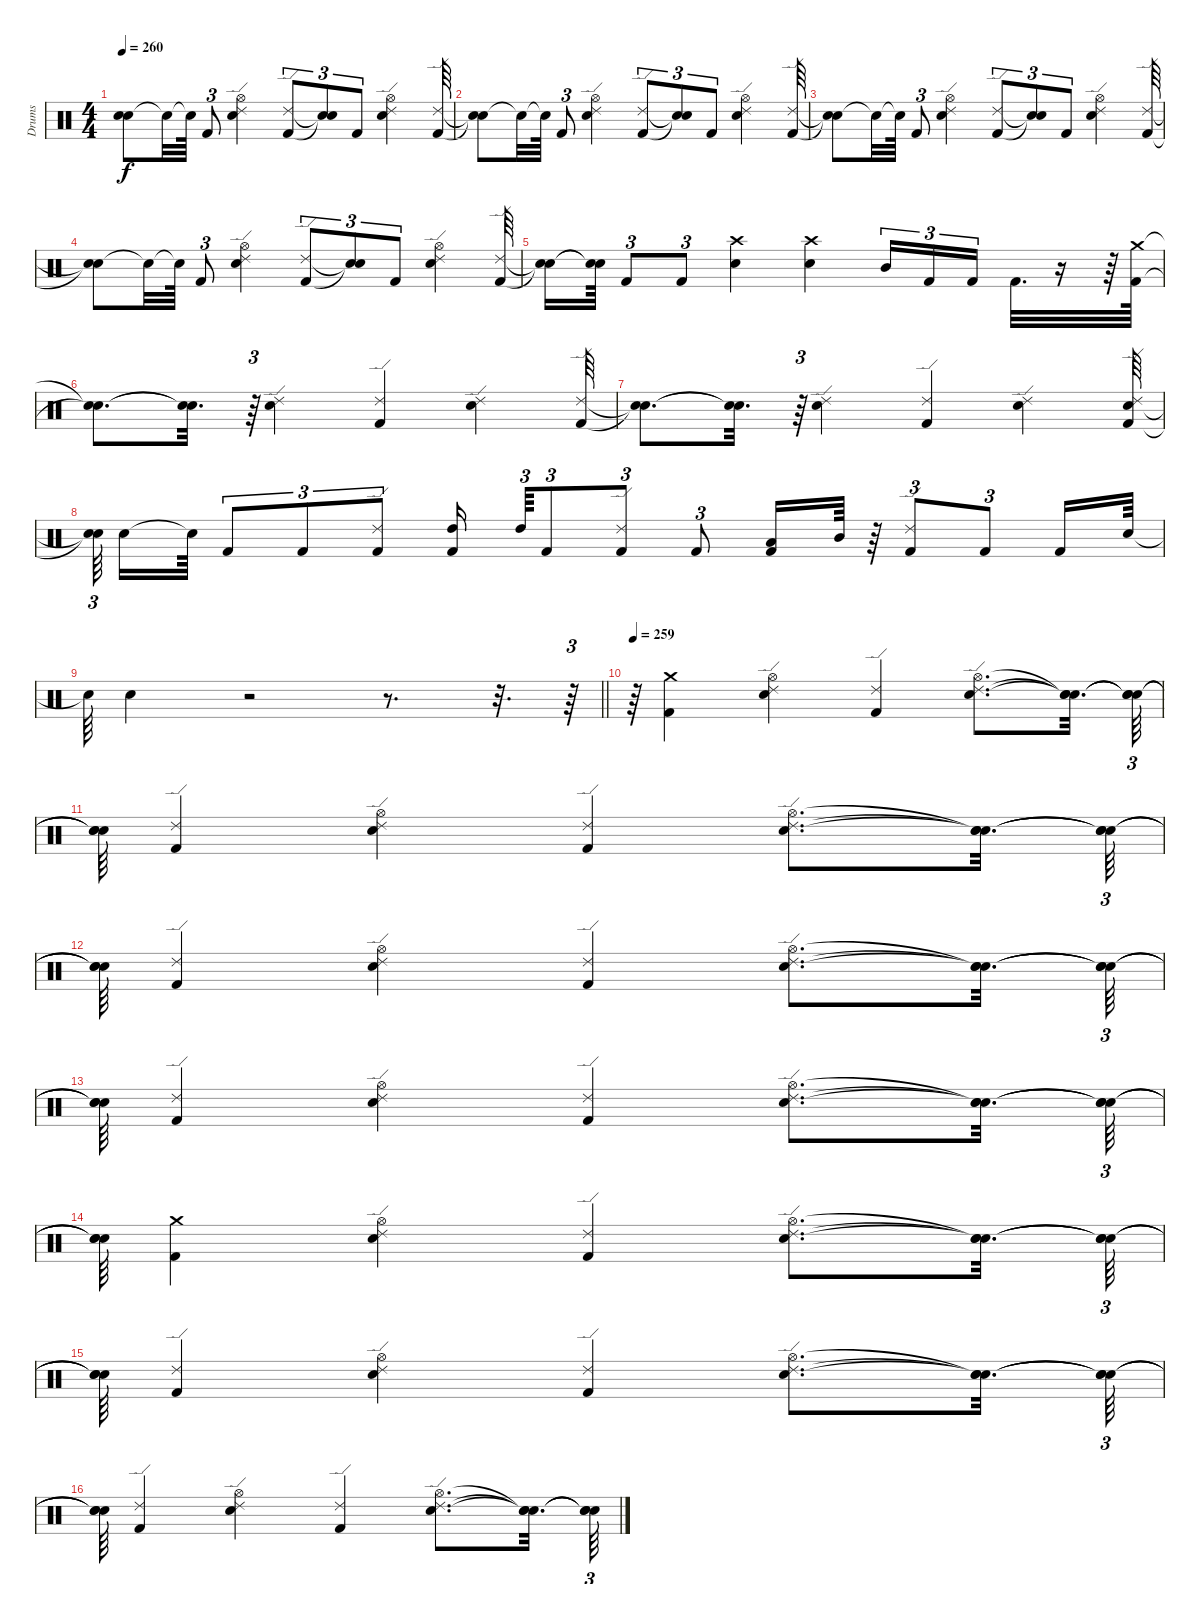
\track ("Drums" "Drums") {instrument percussion}
\staff {score}
\articulation defaults
\ts (4 4)
\tempo 260
\clef neutral
\ks c
("Snare (hit)"{t} "Snare (hit)"{t}).8{dy f} "Snare (hit)"{t}.32 "Snare (hit)"{t}.64 "Kick (hit) 2".8{tu (3 2)} ("Electric Snare (hit)" "Ride (edge) 2" "Hi-Hat (open)").4 ("Kick (hit) 2" "Ride (edge) 2").8{tu (3 2)} ("Snare (hit)"{t} "Snare (hit)"{t}).8{tu (3 2)} "Kick (hit) 2".8{tu (3 2)} ("Electric Snare (hit)" "Ride (edge) 2" "Hi-Hat (open)").4 ("Kick (hit) 2" "Ride (edge) 2").64 |
("Snare (hit)"{t} "Snare (hit)"{t}).8 "Snare (hit)"{t}.32 "Snare (hit)"{t}.64 "Kick (hit) 2".8{tu (3 2)} ("Electric Snare (hit)" "Ride (edge) 2" "Hi-Hat (open)").4 ("Kick (hit) 2" "Ride (edge) 2").8{tu (3 2)} ("Snare (hit)"{t} "Snare (hit)"{t}).8{tu (3 2)} "Kick (hit) 2".8{tu (3 2)} ("Electric Snare (hit)" "Ride (edge) 2" "Hi-Hat (open)").4 ("Kick (hit) 2" "Ride (edge) 2").64 |
("Snare (hit)"{t} "Snare (hit)"{t}).8 "Snare (hit)"{t}.32 "Snare (hit)"{t}.64 "Kick (hit) 2".8{tu (3 2)} ("Electric Snare (hit)" "Ride (edge) 2" "Hi-Hat (open)").4 ("Kick (hit) 2" "Ride (edge) 2").8{tu (3 2)} ("Snare (hit)"{t} "Snare (hit)"{t}).8{tu (3 2)} "Kick (hit) 2".8{tu (3 2)} ("Electric Snare (hit)" "Ride (edge) 2" "Hi-Hat (open)").4 ("Kick (hit) 2" "Ride (edge) 2").64 |
("Snare (hit)"{t} "Snare (hit)"{t}).8 "Snare (hit)"{t}.32 "Snare (hit)"{t}.64 "Kick (hit) 2".8{tu (3 2)} ("Electric Snare (hit)" "Ride (edge) 2" "Hi-Hat (open)").4 ("Kick (hit) 2" "Ride (edge) 2").8{tu (3 2)} ("Snare (hit)"{t} "Snare (hit)"{t}).8{tu (3 2)} "Kick (hit) 2".8{tu (3 2)} ("Electric Snare (hit)" "Ride (edge) 2" "Hi-Hat (open)").4 ("Kick (hit) 2" "Ride (edge) 2").64 |
("Snare (hit)"{t} "Snare (hit)"{t}).16 ("Snare (hit)"{t} "Snare (hit)"{t}).64 "Kick (hit) 2".8{tu (3 2)} "Kick (hit) 2".8{tu (3 2)} ("Electric Snare (hit)" "Crash high (hit)").4 ("Electric Snare (hit)" "Crash high (hit)").4 "Mid Tom (hit)".16{tu (3 2)} "Kick (hit) 2".16{tu (3 2)} "Kick (hit) 2".16{tu (3 2) beam splitsecondary} "Kick (hit) 2".32{d} r.16 r.64 ("Kick (hit) 2" "Crash medium (hit)").64 |
("Snare (hit)"{t} "Snare (hit)"{t}).8{d} ("Snare (hit)"{t} "Snare (hit)"{t}).32{d} r.64{tu (3 2)} ("Electric Snare (hit)" "Ride (edge) 2").4 ("Kick (hit) 2" "Ride (edge) 2").4 ("Electric Snare (hit)" "Ride (edge) 2").4 ("Kick (hit) 2" "Ride (edge) 2").64 |
("Snare (hit)"{t} "Snare (hit)"{t}).8{d} ("Snare (hit)"{t} "Snare (hit)"{t}).32{d} r.64{tu (3 2)} ("Electric Snare (hit)" "Ride (edge) 2").4 ("Kick (hit) 2" "Ride (edge) 2").4 ("Electric Snare (hit)" "Ride (edge) 2").4 ("Kick (hit) 2" "Electric Snare (hit)" "Ride (edge) 2").64 |
("Snare (hit)"{t} "Snare (hit)"{t}).64{tu (3 2) beam splitsecondary} "Electric Snare (hit)".16 "Snare (hit)"{t}.64 "Kick (hit) 2".8{tu (3 2)} "Kick (hit) 2".8{tu (3 2)} ("Kick (hit) 2" "Ride (edge) 2").8{tu (3 2)} ("Kick (hit) 2" "High Tom (hit)").16{beam splitsecondary} "High Tom (hit)".64{tu (3 2)} "Kick (hit) 2".8{tu (3 2)} ("Kick (hit) 2" "Ride (edge) 2").8{tu (3 2)} "Kick (hit) 2".8{tu (3 2)} ("Kick (hit) 2" "Low Tom (hit)").16 "Mid Tom (hit)".64 r.64 ("Kick (hit) 2" "Ride (edge) 2").8{tu (3 2)} "Kick (hit) 2".8{tu (3 2)} "Kick (hit) 2".16 "Electric Snare (hit)".64 |
\barLineRight lightlight "Snare (hit)"{t}.64 "Electric Snare (hit)".4
r.2 r.8{d} r.32{d} r.64{tu (3 2)} |
\section ("" "")
\tempo 259
r.64 ("Kick (hit) 2" "Crash medium (hit)").4 ("Electric Snare (hit)" "Ride (edge) 2" "Hi-Hat (open)").4 ("Kick (hit) 2" "Ride (edge) 2").4 ("Electric Snare (hit)" "Ride (edge) 2" "Hi-Hat (open)").8{d} ("Snare (hit)"{t} "Snare (hit)"{t} "Snare (hit)"{t}).32{d} ("Snare (hit)"{t} "Snare (hit)"{t} "Snare (hit)"{t}).64{tu (3 2)} |
("Snare (hit)"{t} "Snare (hit)"{t} "Snare (hit)"{t}).64 ("Kick (hit) 2" "Ride (edge) 2").4 ("Electric Snare (hit)" "Ride (edge) 2" "Hi-Hat (open)").4 ("Kick (hit) 2" "Ride (edge) 2").4 ("Electric Snare (hit)" "Ride (edge) 2" "Hi-Hat (open)").8{d} ("Snare (hit)"{t} "Snare (hit)"{t} "Snare (hit)"{t}).32{d} ("Snare (hit)"{t} "Snare (hit)"{t} "Snare (hit)"{t}).64{tu (3 2)} |
("Snare (hit)"{t} "Snare (hit)"{t} "Snare (hit)"{t}).64 ("Kick (hit) 2" "Ride (edge) 2").4 ("Electric Snare (hit)" "Ride (edge) 2" "Hi-Hat (open)").4 ("Kick (hit) 2" "Ride (edge) 2").4 ("Electric Snare (hit)" "Ride (edge) 2" "Hi-Hat (open)").8{d} ("Snare (hit)"{t} "Snare (hit)"{t} "Snare (hit)"{t}).32{d} ("Snare (hit)"{t} "Snare (hit)"{t} "Snare (hit)"{t}).64{tu (3 2)} |
("Snare (hit)"{t} "Snare (hit)"{t} "Snare (hit)"{t}).64 ("Kick (hit) 2" "Ride (edge) 2").4 ("Electric Snare (hit)" "Ride (edge) 2" "Hi-Hat (open)").4 ("Kick (hit) 2" "Ride (edge) 2").4 ("Electric Snare (hit)" "Ride (edge) 2" "Hi-Hat (open)").8{d} ("Snare (hit)"{t} "Snare (hit)"{t} "Snare (hit)"{t}).32{d} ("Snare (hit)"{t} "Snare (hit)"{t} "Snare (hit)"{t}).64{tu (3 2)} |
("Snare (hit)"{t} "Snare (hit)"{t} "Snare (hit)"{t}).64 ("Kick (hit) 2" "Crash medium (hit)").4 ("Electric Snare (hit)" "Ride (edge) 2" "Hi-Hat (open)").4 ("Kick (hit) 2" "Ride (edge) 2").4 ("Electric Snare (hit)" "Ride (edge) 2" "Hi-Hat (open)").8{d} ("Snare (hit)"{t} "Snare (hit)"{t} "Snare (hit)"{t}).32{d} ("Snare (hit)"{t} "Snare (hit)"{t} "Snare (hit)"{t}).64{tu (3 2)} |
("Snare (hit)"{t} "Snare (hit)"{t} "Snare (hit)"{t}).64 ("Kick (hit) 2" "Ride (edge) 2").4 ("Electric Snare (hit)" "Ride (edge) 2" "Hi-Hat (open)").4 ("Kick (hit) 2" "Ride (edge) 2").4 ("Electric Snare (hit)" "Ride (edge) 2" "Hi-Hat (open)").8{d} ("Snare (hit)"{t} "Snare (hit)"{t} "Snare (hit)"{t}).32{d} ("Snare (hit)"{t} "Snare (hit)"{t} "Snare (hit)"{t}).64{tu (3 2)} |
("Snare (hit)"{t} "Snare (hit)"{t} "Snare (hit)"{t}).64 ("Kick (hit) 2" "Ride (edge) 2").4 ("Electric Snare (hit)" "Ride (edge) 2" "Hi-Hat (open)").4 ("Kick (hit) 2" "Ride (edge) 2").4 ("Electric Snare (hit)" "Ride (edge) 2" "Hi-Hat (open)").8{d} ("Snare (hit)"{t} "Snare (hit)"{t} "Snare (hit)"{t}).32{d} ("Snare (hit)"{t} "Snare (hit)"{t} "Snare (hit)"{t}).64{tu (3 2)}
